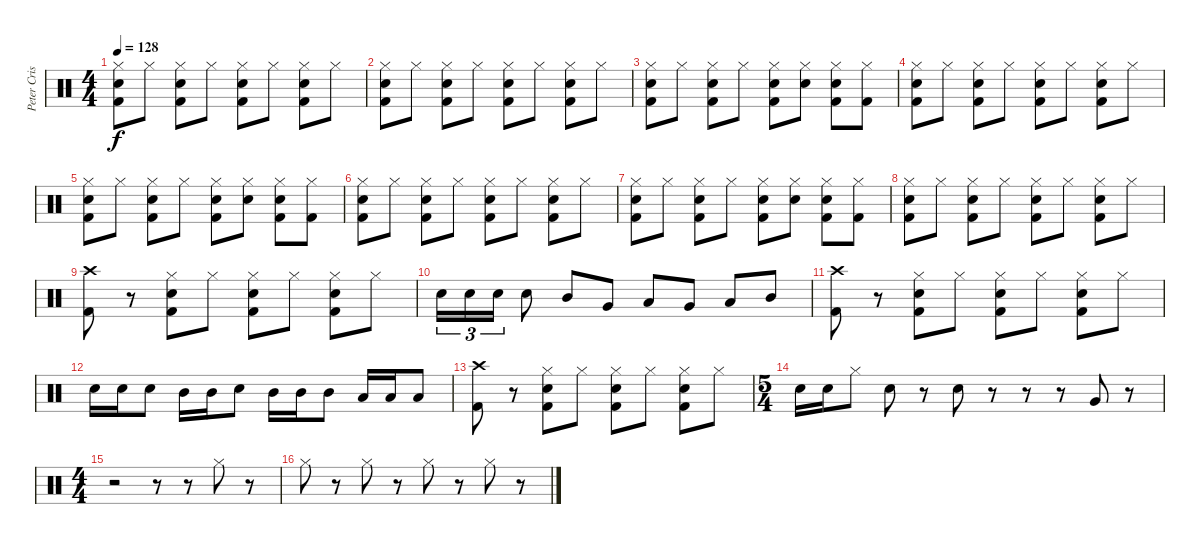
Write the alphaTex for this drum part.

\track ("Peter Criss" "Peter Cris") {instrument percussion}
\staff {score}
\articulation defaults
\ts (4 4)
\tempo 128
\clef neutral
\ks c
("Hi-Hat (closed)" "Electric Snare (hit)" "Kick (hit) 2").8{dy f} "Hi-Hat (closed)".8 ("Hi-Hat (closed)" "Electric Snare (hit)" "Kick (hit) 2").8 "Hi-Hat (closed)".8 ("Hi-Hat (closed)" "Electric Snare (hit)" "Kick (hit) 2").8 "Hi-Hat (closed)".8 ("Hi-Hat (closed)" "Electric Snare (hit)" "Kick (hit) 2").8 "Hi-Hat (closed)".8 |
("Hi-Hat (closed)" "Electric Snare (hit)" "Kick (hit) 2").8 "Hi-Hat (closed)".8 ("Hi-Hat (closed)" "Electric Snare (hit)" "Kick (hit) 2").8 "Hi-Hat (closed)".8 ("Hi-Hat (closed)" "Electric Snare (hit)" "Kick (hit) 2").8 "Hi-Hat (closed)".8 ("Hi-Hat (closed)" "Electric Snare (hit)" "Kick (hit) 2").8 "Hi-Hat (closed)".8 |
("Hi-Hat (closed)" "Electric Snare (hit)" "Kick (hit) 2").8 "Hi-Hat (closed)".8 ("Hi-Hat (closed)" "Electric Snare (hit)" "Kick (hit) 2").8 "Hi-Hat (closed)".8 ("Hi-Hat (closed)" "Electric Snare (hit)" "Kick (hit) 2").8 ("Hi-Hat (closed)" "Electric Snare (hit)").8 ("Hi-Hat (closed)" "Electric Snare (hit)" "Kick (hit) 2").8 ("Hi-Hat (closed)" "Kick (hit) 2").8 |
("Hi-Hat (closed)" "Electric Snare (hit)" "Kick (hit) 2").8 "Hi-Hat (closed)".8 ("Hi-Hat (closed)" "Electric Snare (hit)" "Kick (hit) 2").8 "Hi-Hat (closed)".8 ("Hi-Hat (closed)" "Electric Snare (hit)" "Kick (hit) 2").8 "Hi-Hat (closed)".8 ("Hi-Hat (closed)" "Electric Snare (hit)" "Kick (hit) 2").8 "Hi-Hat (closed)".8 |
("Hi-Hat (closed)" "Electric Snare (hit)" "Kick (hit) 2").8 "Hi-Hat (closed)".8 ("Hi-Hat (closed)" "Electric Snare (hit)" "Kick (hit) 2").8 "Hi-Hat (closed)".8 ("Hi-Hat (closed)" "Electric Snare (hit)" "Kick (hit) 2").8 ("Hi-Hat (closed)" "Electric Snare (hit)").8 ("Hi-Hat (closed)" "Electric Snare (hit)" "Kick (hit) 2").8 ("Hi-Hat (closed)" "Kick (hit) 2").8 |
("Hi-Hat (closed)" "Electric Snare (hit)" "Kick (hit) 2").8 "Hi-Hat (closed)".8 ("Hi-Hat (closed)" "Electric Snare (hit)" "Kick (hit) 2").8 "Hi-Hat (closed)".8 ("Hi-Hat (closed)" "Electric Snare (hit)" "Kick (hit) 2").8 "Hi-Hat (closed)".8 ("Hi-Hat (closed)" "Electric Snare (hit)" "Kick (hit) 2").8 "Hi-Hat (closed)".8 |
("Hi-Hat (closed)" "Electric Snare (hit)" "Kick (hit) 2").8 "Hi-Hat (closed)".8 ("Hi-Hat (closed)" "Electric Snare (hit)" "Kick (hit) 2").8 "Hi-Hat (closed)".8 ("Hi-Hat (closed)" "Electric Snare (hit)" "Kick (hit) 2").8 ("Hi-Hat (closed)" "Electric Snare (hit)").8 ("Hi-Hat (closed)" "Electric Snare (hit)" "Kick (hit) 2").8 ("Hi-Hat (closed)" "Kick (hit) 2").8 |
("Hi-Hat (closed)" "Electric Snare (hit)" "Kick (hit) 2").8 "Hi-Hat (closed)".8 ("Hi-Hat (closed)" "Electric Snare (hit)" "Kick (hit) 2").8 "Hi-Hat (closed)".8 ("Hi-Hat (closed)" "Electric Snare (hit)" "Kick (hit) 2").8 "Hi-Hat (closed)".8 ("Hi-Hat (closed)" "Electric Snare (hit)" "Kick (hit) 2").8 "Hi-Hat (closed)".8 |
("Crash high (hit)" "Kick (hit) 2").8 r.8 ("Hi-Hat (closed)" "Electric Snare (hit)" "Kick (hit) 2").8 "Hi-Hat (closed)".8 ("Hi-Hat (closed)" "Electric Snare (hit)" "Kick (hit) 2").8 "Hi-Hat (closed)".8 ("Hi-Hat (closed)" "Electric Snare (hit)" "Kick (hit) 2").8 "Hi-Hat (closed)".8 |
"Electric Snare (hit)".16{tu (3 2)} "Electric Snare (hit)".16{tu (3 2)} "Electric Snare (hit)".16{tu (3 2)} "Electric Snare (hit)".8 "Mid Tom (hit)".8 "Very Low Tom (hit)".8 "Low Tom (hit)".8 "Very Low Tom (hit)".8 "Low Tom (hit)".8 "Mid Tom (hit)".8 |
("Crash high (hit)" "Kick (hit) 2").8 r.8 ("Hi-Hat (closed)" "Electric Snare (hit)" "Kick (hit) 2").8 "Hi-Hat (closed)".8 ("Hi-Hat (closed)" "Electric Snare (hit)" "Kick (hit) 2").8 "Hi-Hat (closed)".8 ("Hi-Hat (closed)" "Electric Snare (hit)" "Kick (hit) 2").8 "Hi-Hat (closed)".8 |
"Electric Snare (hit)".16 "Electric Snare (hit)".16 "Electric Snare (hit)".8 "Mid Tom (hit)".16 "Mid Tom (hit)".16 "Electric Snare (hit)".8 "Mid Tom (hit)".16 "Mid Tom (hit)".16 "Mid Tom (hit)".8 "Low Tom (hit)".16 "Low Tom (hit)".16 "Low Tom (hit)".8 |
("Crash high (hit)" "Kick (hit) 2").8 r.8 ("Hi-Hat (closed)" "Electric Snare (hit)" "Kick (hit) 2").8 "Hi-Hat (closed)".8 ("Hi-Hat (closed)" "Electric Snare (hit)" "Kick (hit) 2").8 "Hi-Hat (closed)".8 ("Hi-Hat (closed)" "Electric Snare (hit)" "Kick (hit) 2").8 "Hi-Hat (closed)".8 |
\ts (5 4)
"Electric Snare (hit)".16 "Electric Snare (hit)".16 "Hi-Hat (closed)".8 "Electric Snare (hit)".8 r.8 "Electric Snare (hit)".8 r.8 r.8 r.8 "Very Low Tom (hit)".8 r.8 |
\ts (4 4)
r.2 r.8 r.8 "Hi-Hat (closed)".8 r.8 |
"Hi-Hat (closed)".8 r.8 "Hi-Hat (closed)".8 r.8 "Hi-Hat (closed)".8 r.8 "Hi-Hat (closed)".8 r.8
